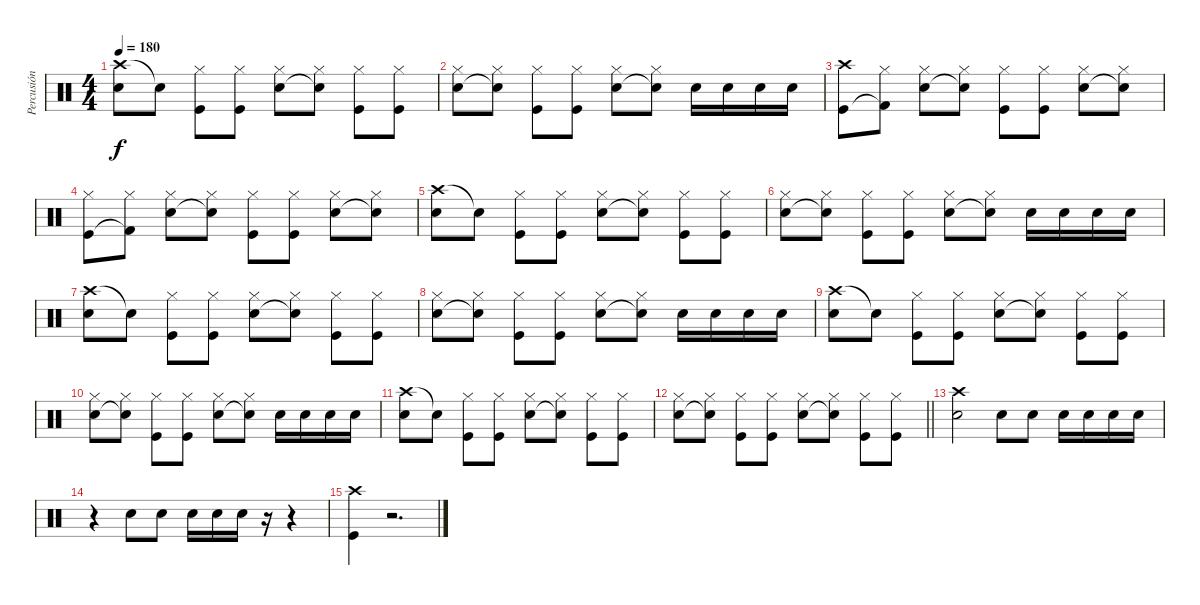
\track ("Percusión" "Percusión") {instrument percussion}
\staff {score}
\articulation defaults
\ts (4 4)
\tempo 180
\clef neutral
\ks c
("Crash high (hit)" "Snare (hit) 2").8{dy f} "Snare (hit)"{t}.8 ("Hi-Hat (closed)" "Kick (hit)").8 ("Hi-Hat (closed)" "Kick (hit)").8 ("Hi-Hat (closed)" "Snare (hit) 2").8 ("Hi-Hat (closed)" "Snare (hit)"{t}).8 ("Hi-Hat (closed)" "Kick (hit)").8 ("Hi-Hat (closed)" "Kick (hit)").8 |
("Hi-Hat (closed)" "Snare (hit) 2").8 ("Hi-Hat (closed)" "Snare (hit)"{t}).8 ("Hi-Hat (closed)" "Kick (hit)").8 ("Hi-Hat (closed)" "Kick (hit)").8 ("Hi-Hat (closed)" "Snare (hit) 2").8 ("Hi-Hat (closed)" "Snare (hit) 2"{t}).8 "Snare (hit) 2".16 "Snare (hit) 2".16 "Snare (hit) 2".16 "Snare (hit) 2".16 |
("Crash high (hit)" "Kick (hit)").8 ("Hi-Hat (closed)" "Kick (hit) 2"{t}).8 ("Hi-Hat (closed)" "Snare (hit) 2").8 ("Hi-Hat (closed)" "Snare (hit)"{t}).8 ("Hi-Hat (closed)" "Kick (hit)").8 ("Hi-Hat (closed)" "Kick (hit)").8 ("Hi-Hat (closed)" "Snare (hit) 2").8 ("Hi-Hat (closed)" "Snare (hit)"{t}).8 |
("Hi-Hat (closed)" "Kick (hit)").8 ("Hi-Hat (closed)" "Kick (hit) 2"{t}).8 ("Hi-Hat (closed)" "Snare (hit) 2").8 ("Hi-Hat (closed)" "Snare (hit)"{t}).8 ("Hi-Hat (closed)" "Kick (hit)").8 ("Hi-Hat (closed)" "Kick (hit)").8 ("Hi-Hat (closed)" "Snare (hit) 2").8 ("Hi-Hat (closed)" "Snare (hit)"{t}).8 |
("Crash high (hit)" "Snare (hit) 2").8 "Snare (hit)"{t}.8 ("Hi-Hat (closed)" "Kick (hit)").8 ("Hi-Hat (closed)" "Kick (hit)").8 ("Hi-Hat (closed)" "Snare (hit) 2").8 ("Hi-Hat (closed)" "Snare (hit)"{t}).8 ("Hi-Hat (closed)" "Kick (hit)").8 ("Hi-Hat (closed)" "Kick (hit)").8 |
("Hi-Hat (closed)" "Snare (hit) 2").8 ("Hi-Hat (closed)" "Snare (hit)"{t}).8 ("Hi-Hat (closed)" "Kick (hit)").8 ("Hi-Hat (closed)" "Kick (hit)").8 ("Hi-Hat (closed)" "Snare (hit) 2").8 ("Hi-Hat (closed)" "Snare (hit) 2"{t}).8 "Snare (hit) 2".16 "Snare (hit) 2".16 "Snare (hit) 2".16 "Snare (hit) 2".16 |
("Crash high (hit)" "Snare (hit) 2").8 "Snare (hit)"{t}.8 ("Hi-Hat (closed)" "Kick (hit)").8 ("Hi-Hat (closed)" "Kick (hit)").8 ("Hi-Hat (closed)" "Snare (hit) 2").8 ("Hi-Hat (closed)" "Snare (hit)"{t}).8 ("Hi-Hat (closed)" "Kick (hit)").8 ("Hi-Hat (closed)" "Kick (hit)").8 |
("Hi-Hat (closed)" "Snare (hit) 2").8 ("Hi-Hat (closed)" "Snare (hit)"{t}).8 ("Hi-Hat (closed)" "Kick (hit)").8 ("Hi-Hat (closed)" "Kick (hit)").8 ("Hi-Hat (closed)" "Snare (hit) 2").8 ("Hi-Hat (closed)" "Snare (hit) 2"{t}).8 "Snare (hit) 2".16 "Snare (hit) 2".16 "Snare (hit) 2".16 "Snare (hit) 2".16 |
("Crash high (hit)" "Snare (hit) 2").8 "Snare (hit)"{t}.8 ("Hi-Hat (closed)" "Kick (hit)").8 ("Hi-Hat (closed)" "Kick (hit)").8 ("Hi-Hat (closed)" "Snare (hit) 2").8 ("Hi-Hat (closed)" "Snare (hit)"{t}).8 ("Hi-Hat (closed)" "Kick (hit)").8 ("Hi-Hat (closed)" "Kick (hit)").8 |
("Hi-Hat (closed)" "Snare (hit) 2").8 ("Hi-Hat (closed)" "Snare (hit)"{t}).8 ("Hi-Hat (closed)" "Kick (hit)").8 ("Hi-Hat (closed)" "Kick (hit)").8 ("Hi-Hat (closed)" "Snare (hit) 2").8 ("Hi-Hat (closed)" "Snare (hit) 2"{t}).8 "Snare (hit) 2".16 "Snare (hit) 2".16 "Snare (hit) 2".16 "Snare (hit) 2".16 |
("Crash high (hit)" "Snare (hit) 2").8 "Snare (hit)"{t}.8 ("Hi-Hat (closed)" "Kick (hit)").8 ("Hi-Hat (closed)" "Kick (hit)").8 ("Hi-Hat (closed)" "Snare (hit) 2").8 ("Hi-Hat (closed)" "Snare (hit)"{t}).8 ("Hi-Hat (closed)" "Kick (hit)").8 ("Hi-Hat (closed)" "Kick (hit)").8 |
\barLineRight lightlight
("Hi-Hat (closed)" "Snare (hit) 2").8 ("Hi-Hat (closed)" "Snare (hit)"{t}).8 ("Hi-Hat (closed)" "Kick (hit)").8 ("Hi-Hat (closed)" "Kick (hit)").8 ("Hi-Hat (closed)" "Snare (hit) 2").8 ("Hi-Hat (closed)" "Snare (hit)"{t}).8 ("Hi-Hat (closed)" "Kick (hit)").8 ("Hi-Hat (closed)" "Kick (hit)").8 |
("Crash high (hit)" "Snare (hit) 2").2 "Snare (hit) 2".8 "Snare (hit) 2".8 "Snare (hit) 2".16 "Snare (hit) 2".16 "Snare (hit) 2".16 "Snare (hit) 2".16 |
r.4 "Snare (hit) 2".8 "Snare (hit) 2".8 "Snare (hit) 2".16 "Snare (hit) 2".16 "Snare (hit) 2".16 r.16 r.4 |
("Crash high (hit)" "Kick (hit)").4 r.2{d}
